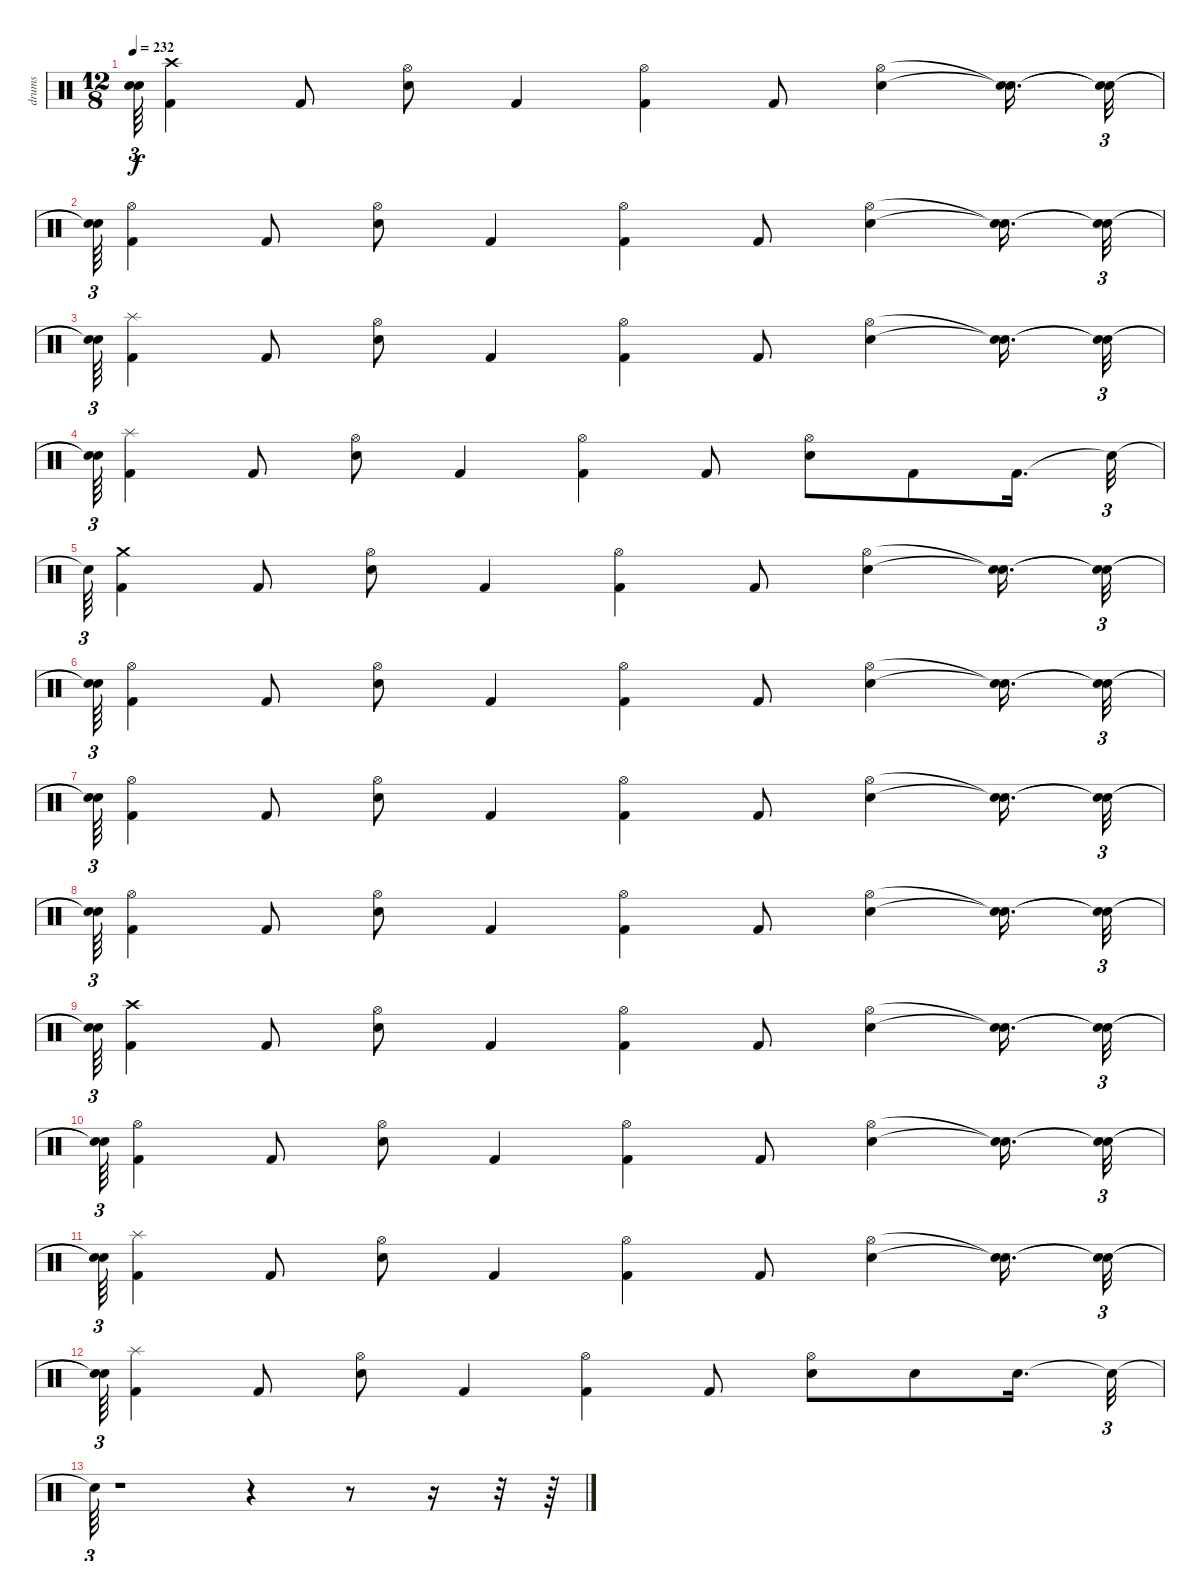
\track ("drums" "drums") {instrument percussion}
\staff {score}
\articulation defaults
\ts (12 8)
\tempo 232
\clef neutral
\ks c
("Snare (hit)"{t} "Snare (hit)"{t}).64{tu (3 2) dy f} ("Kick (hit) 2" "Crash high (hit)").4 "Kick (hit) 2".8 ("Electric Snare (hit)" "Hi-Hat (open)").8 "Kick (hit) 2".4 ("Kick (hit) 2" "Hi-Hat (open)").4 "Kick (hit) 2".8 ("Electric Snare (hit)" "Hi-Hat (open)").4 ("Snare (hit)"{t} "Snare (hit)"{t}).16{d} ("Snare (hit)"{t} "Snare (hit)"{t}).32{tu (3 2)} |
("Snare (hit)"{t} "Snare (hit)"{t}).64{tu (3 2)} ("Hi-Hat (open)" "Kick (hit) 2").4 "Kick (hit) 2".8 ("Hi-Hat (open)" "Electric Snare (hit)").8 "Kick (hit) 2".4 ("Hi-Hat (open)" "Kick (hit) 2").4 "Kick (hit) 2".8 ("Hi-Hat (open)" "Electric Snare (hit)").4 ("Snare (hit)"{t} "Snare (hit)"{t}).16{d} ("Snare (hit)"{t} "Snare (hit)"{t}).32{tu (3 2)} |
("Snare (hit)"{t} "Snare (hit)"{t}).64{tu (3 2)} ("Splash (hit)" "Kick (hit) 2").4 "Kick (hit) 2".8 ("Hi-Hat (open)" "Electric Snare (hit)").8 "Kick (hit) 2".4 ("Hi-Hat (open)" "Kick (hit) 2").4 "Kick (hit) 2".8 ("Hi-Hat (open)" "Electric Snare (hit)").4 ("Snare (hit)"{t} "Snare (hit)"{t}).16{d} ("Snare (hit)"{t} "Snare (hit)"{t}).32{tu (3 2)} |
("Snare (hit)"{t} "Snare (hit)"{t}).64{tu (3 2)} ("Splash (hit)" "Kick (hit) 2").4 "Kick (hit) 2".8 ("Hi-Hat (open)" "Electric Snare (hit)").8 "Kick (hit) 2".4 ("Hi-Hat (open)" "Kick (hit) 2").4 "Kick (hit) 2".8 ("Electric Snare (hit)" "Hi-Hat (open)").8 "Kick (hit) 2".8 "Kick (hit) 2".16{d} "Snare (hit)"{t}.32{tu (3 2)} |
"Snare (hit)"{t}.64{tu (3 2)} ("Kick (hit) 2" "Crash medium (hit)").4 "Kick (hit) 2".8 ("Electric Snare (hit)" "Hi-Hat (open)").8 "Kick (hit) 2".4 ("Kick (hit) 2" "Hi-Hat (open)").4 "Kick (hit) 2".8 ("Electric Snare (hit)" "Hi-Hat (open)").4 ("Snare (hit)"{t} "Snare (hit)"{t}).16{d} ("Snare (hit)"{t} "Snare (hit)"{t}).32{tu (3 2)} |
("Snare (hit)"{t} "Snare (hit)"{t}).64{tu (3 2)} ("Hi-Hat (open)" "Kick (hit) 2").4 "Kick (hit) 2".8 ("Hi-Hat (open)" "Electric Snare (hit)").8 "Kick (hit) 2".4 ("Hi-Hat (open)" "Kick (hit) 2").4 "Kick (hit) 2".8 ("Hi-Hat (open)" "Electric Snare (hit)").4 ("Snare (hit)"{t} "Snare (hit)"{t}).16{d} ("Snare (hit)"{t} "Snare (hit)"{t}).32{tu (3 2)} |
("Snare (hit)"{t} "Snare (hit)"{t}).64{tu (3 2)} ("Hi-Hat (open)" "Kick (hit) 2").4 "Kick (hit) 2".8 ("Hi-Hat (open)" "Electric Snare (hit)").8 "Kick (hit) 2".4 ("Hi-Hat (open)" "Kick (hit) 2").4 "Kick (hit) 2".8 ("Hi-Hat (open)" "Electric Snare (hit)").4 ("Snare (hit)"{t} "Snare (hit)"{t}).16{d} ("Snare (hit)"{t} "Snare (hit)"{t}).32{tu (3 2)} |
("Snare (hit)"{t} "Snare (hit)"{t}).64{tu (3 2)} ("Hi-Hat (open)" "Kick (hit) 2").4 "Kick (hit) 2".8 ("Hi-Hat (open)" "Electric Snare (hit)").8 "Kick (hit) 2".4 ("Hi-Hat (open)" "Kick (hit) 2").4 "Kick (hit) 2".8 ("Hi-Hat (open)" "Electric Snare (hit)").4 ("Snare (hit)"{t} "Snare (hit)"{t}).16{d} ("Snare (hit)"{t} "Snare (hit)"{t}).32{tu (3 2)} |
("Snare (hit)"{t} "Snare (hit)"{t}).64{tu (3 2)} ("Kick (hit) 2" "Crash high (hit)").4 "Kick (hit) 2".8 ("Electric Snare (hit)" "Hi-Hat (open)").8 "Kick (hit) 2".4 ("Kick (hit) 2" "Hi-Hat (open)").4 "Kick (hit) 2".8 ("Electric Snare (hit)" "Hi-Hat (open)").4 ("Snare (hit)"{t} "Snare (hit)"{t}).16{d} ("Snare (hit)"{t} "Snare (hit)"{t}).32{tu (3 2)} |
("Snare (hit)"{t} "Snare (hit)"{t}).64{tu (3 2)} ("Hi-Hat (open)" "Kick (hit) 2").4 "Kick (hit) 2".8 ("Hi-Hat (open)" "Electric Snare (hit)").8 "Kick (hit) 2".4 ("Hi-Hat (open)" "Kick (hit) 2").4 "Kick (hit) 2".8 ("Hi-Hat (open)" "Electric Snare (hit)").4 ("Snare (hit)"{t} "Snare (hit)"{t}).16{d} ("Snare (hit)"{t} "Snare (hit)"{t}).32{tu (3 2)} |
("Snare (hit)"{t} "Snare (hit)"{t}).64{tu (3 2)} ("Splash (hit)" "Kick (hit) 2").4 "Kick (hit) 2".8 ("Hi-Hat (open)" "Electric Snare (hit)").8 "Kick (hit) 2".4 ("Hi-Hat (open)" "Kick (hit) 2").4 "Kick (hit) 2".8 ("Hi-Hat (open)" "Electric Snare (hit)").4 ("Snare (hit)"{t} "Snare (hit)"{t}).16{d} ("Snare (hit)"{t} "Snare (hit)"{t}).32{tu (3 2)} |
("Snare (hit)"{t} "Snare (hit)"{t}).64{tu (3 2)} ("Splash (hit)" "Kick (hit) 2").4 "Kick (hit) 2".8 ("Hi-Hat (open)" "Electric Snare (hit)").8 "Kick (hit) 2".4 ("Hi-Hat (open)" "Kick (hit) 2").4 "Kick (hit) 2".8 ("Electric Snare (hit)" "Hi-Hat (open)").8 "Electric Snare (hit)".8 "Electric Snare (hit)".16{d} "Snare (hit)"{t}.32{tu (3 2)} |
"Snare (hit)"{t}.64{tu (3 2)} r.1 r.4 r.8 r.16 r.32 r.64
